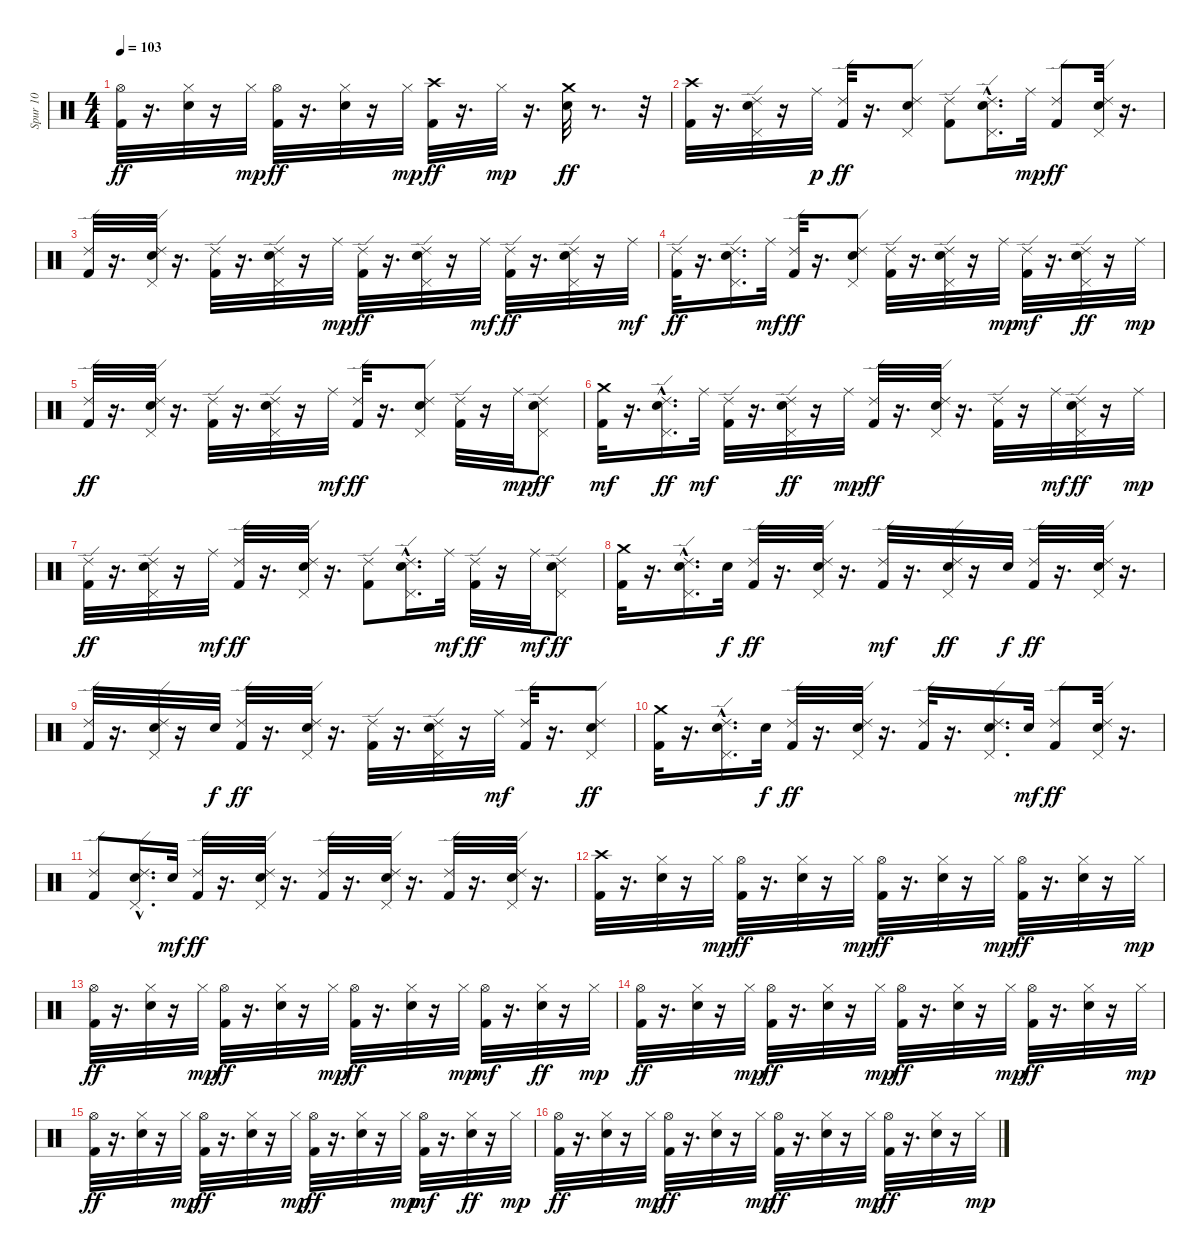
\track ("Spur 10" "Spur 10") {instrument percussion}
\staff {score}
\articulation defaults
\ts (4 4)
\tempo 103
\clef neutral
\ks c
("Kick (hit) 2" "Hi-Hat (open)").32{dy ff} r.16{d} ("Hi-Hat (closed)" "Electric Snare (hit)").32 r.16 "Hi-Hat (closed)".32{dy mp} ("Kick (hit) 2" "Hi-Hat (open)").32{dy ff} r.16{d} ("Hi-Hat (closed)" "Electric Snare (hit)").32 r.16 "Hi-Hat (closed)".32{dy mp} ("Kick (hit) 2" "Crash high (hit)").32{dy ff} r.16{d} "Hi-Hat (closed)".32{dy mp} r.16{d} ("Crash medium (hit)" "Electric Snare (hit)").32{dy ff} r.8{d} r.32 |
("Kick (hit) 2" "Crash high (hit)").32 r.16{d} ("Pedal Hi-Hat (hit)" "Ride (edge) 2" "Electric Snare (hit)").32 r.16 "Ride (middle)".32{dy p} ("Kick (hit) 2" "Ride (edge) 2").32{dy ff} r.16{d} ("Pedal Hi-Hat (hit)" "Ride (edge) 2" "Electric Snare (hit)").8 ("Kick (hit) 2" "Ride (edge) 2").8 ("Pedal Hi-Hat (hit)"{hac} "Ride (edge) 2" "Electric Snare (hit)").16{d} "Ride (middle)".32{dy mp} ("Kick (hit) 2" "Ride (edge) 2").8{dy ff} ("Pedal Hi-Hat (hit)" "Ride (edge) 2" "Electric Snare (hit)").32 r.16{d} |
("Kick (hit) 2" "Ride (edge) 2").32 r.16{d} ("Pedal Hi-Hat (hit)" "Ride (edge) 2" "Electric Snare (hit)").32 r.16{d} ("Kick (hit) 2" "Ride (edge) 2").32 r.16{d} ("Pedal Hi-Hat (hit)" "Ride (edge) 2" "Electric Snare (hit)").32 r.16 "Ride (middle)".32{dy mp} ("Kick (hit) 2" "Ride (edge) 2").32{dy ff} r.16{d} ("Pedal Hi-Hat (hit)" "Ride (edge) 2" "Electric Snare (hit)").32 r.16 "Ride (middle)".32{dy mf} ("Kick (hit) 2" "Ride (edge) 2").32{dy ff} r.16{d} ("Pedal Hi-Hat (hit)" "Ride (edge) 2" "Electric Snare (hit)").32 r.16 "Ride (middle)".32{dy mf} |
("Kick (hit) 2" "Ride (edge) 2").32{dy ff} r.16{d} ("Pedal Hi-Hat (hit)" "Ride (edge) 2" "Electric Snare (hit)").16{d} "Ride (middle)".32{dy mf} ("Kick (hit) 2" "Ride (edge) 2").32{dy ff} r.16{d} ("Pedal Hi-Hat (hit)" "Ride (edge) 2" "Electric Snare (hit)").8 ("Kick (hit) 2" "Ride (edge) 2").32 r.16{d} ("Pedal Hi-Hat (hit)" "Ride (edge) 2" "Electric Snare (hit)").32 r.16 "Ride (middle)".32{dy mp} ("Kick (hit) 2" "Ride (edge) 2").32{dy mf} r.16{d} ("Pedal Hi-Hat (hit)" "Ride (edge) 2" "Electric Snare (hit)").32{dy ff} r.16 "Ride (middle)".32{dy mp} |
("Kick (hit) 2" "Ride (edge) 2").32{dy ff} r.16{d} ("Pedal Hi-Hat (hit)" "Ride (edge) 2" "Electric Snare (hit)").32 r.16{d} ("Kick (hit) 2" "Ride (edge) 2").32 r.16{d} ("Pedal Hi-Hat (hit)" "Ride (edge) 2" "Electric Snare (hit)").32 r.16 "Ride (middle)".32{dy mf} ("Kick (hit) 2" "Ride (edge) 2").32{dy ff} r.16{d} ("Pedal Hi-Hat (hit)" "Ride (edge) 2" "Electric Snare (hit)").8 ("Kick (hit) 2" "Ride (edge) 2").32 r.16 "Ride (middle)".32{dy mp} ("Pedal Hi-Hat (hit)" "Ride (edge) 2" "Electric Snare (hit)").8{dy ff} |
("Kick (hit) 2" "Crash medium (hit)").32{dy mf} r.16{d} ("Pedal Hi-Hat (hit)"{hac} "Ride (edge) 2" "Electric Snare (hit)").16{d dy ff} "Ride (middle)".32{dy mf} ("Kick (hit) 2" "Ride (edge) 2").32 r.16{d} ("Pedal Hi-Hat (hit)" "Ride (edge) 2" "Electric Snare (hit)").32{dy ff} r.16 "Ride (middle)".32{dy mp} ("Kick (hit) 2" "Ride (edge) 2").32{dy ff} r.16{d} ("Pedal Hi-Hat (hit)" "Ride (edge) 2" "Electric Snare (hit)").32 r.16{d} ("Kick (hit) 2" "Ride (edge) 2").32 r.16 "Ride (middle)".32{dy mf} ("Pedal Hi-Hat (hit)" "Ride (edge) 2" "Electric Snare (hit)").32{dy ff} r.16 "Ride (middle)".32{dy mp} |
("Kick (hit) 2" "Ride (edge) 2").32{dy ff} r.16{d} ("Pedal Hi-Hat (hit)" "Ride (edge) 2" "Electric Snare (hit)").32 r.16 "Ride (middle)".32{dy mf} ("Kick (hit) 2" "Ride (edge) 2").32{dy ff} r.16{d} ("Pedal Hi-Hat (hit)" "Ride (edge) 2" "Electric Snare (hit)").32 r.16{d} ("Kick (hit) 2" "Ride (edge) 2").8 ("Pedal Hi-Hat (hit)" "Ride (edge) 2"{hac} "Electric Snare (hit)").16{d} "Ride (middle)".32{dy mf} ("Kick (hit) 2" "Ride (edge) 2").32{dy ff} r.16 "Ride (middle)".32{dy mf} ("Pedal Hi-Hat (hit)" "Ride (edge) 2" "Electric Snare (hit)").8{dy ff} |
("Kick (hit) 2" "Crash medium (hit)").32 r.16{d} ("Pedal Hi-Hat (hit)"{hac} "Ride (edge) 2" "Electric Snare (hit)").16{d} "Electric Snare (hit)".32{dy f} ("Kick (hit) 2" "Ride (edge) 2").32{dy ff} r.16{d} ("Pedal Hi-Hat (hit)" "Ride (edge) 2" "Electric Snare (hit)").32 r.16{d} ("Kick (hit) 2" "Ride (edge) 2").32{dy mf} r.16{d} ("Pedal Hi-Hat (hit)" "Ride (edge) 2" "Electric Snare (hit)").32{dy ff} r.16 "Electric Snare (hit)".32{dy f} ("Kick (hit) 2" "Ride (edge) 2").32{dy ff} r.16{d} ("Pedal Hi-Hat (hit)" "Ride (edge) 2" "Electric Snare (hit)").32 r.16{d} |
("Kick (hit) 2" "Ride (edge) 2").32 r.16{d} ("Pedal Hi-Hat (hit)" "Ride (edge) 2" "Electric Snare (hit)").32 r.16 "Electric Snare (hit)".32{dy f} ("Kick (hit) 2" "Ride (edge) 2").32{dy ff} r.16{d} ("Pedal Hi-Hat (hit)" "Ride (edge) 2" "Electric Snare (hit)").32 r.16{d} ("Kick (hit) 2" "Ride (edge) 2").32 r.16{d} ("Pedal Hi-Hat (hit)" "Ride (edge) 2" "Electric Snare (hit)").32 r.16 "Ride (middle)".32{dy mf} ("Kick (hit) 2" "Ride (edge) 2").32 r.16{d} ("Pedal Hi-Hat (hit)" "Ride (edge) 2" "Electric Snare (hit)").8{dy ff} |
("Kick (hit) 2" "Crash medium (hit)").32 r.16{d} ("Pedal Hi-Hat (hit)"{hac} "Ride (edge) 2" "Electric Snare (hit)").16{d} "Electric Snare (hit)".32{dy f} ("Kick (hit) 2" "Ride (edge) 2").32{dy ff} r.16{d} ("Pedal Hi-Hat (hit)" "Ride (edge) 2" "Electric Snare (hit)").32 r.16{d} ("Kick (hit) 2" "Ride (edge) 2").32 r.16{d} ("Pedal Hi-Hat (hit)" "Ride (edge) 2" "Electric Snare (hit)").16{d} "Electric Snare (hit)".32{dy mf} ("Kick (hit) 2" "Ride (edge) 2").8{dy ff} ("Pedal Hi-Hat (hit)" "Ride (edge) 2" "Electric Snare (hit)").32 r.16{d} |
("Kick (hit) 2" "Ride (edge) 2").8 ("Pedal Hi-Hat (hit)" "Ride (edge) 2"{hac} "Electric Snare (hit)").16{d} "Electric Snare (hit)".32{dy mf} ("Kick (hit) 2" "Ride (edge) 2").32{dy ff} r.16{d} ("Pedal Hi-Hat (hit)" "Ride (edge) 2" "Electric Snare (hit)").32 r.16{d} ("Kick (hit) 2" "Ride (edge) 2").32 r.16{d} ("Pedal Hi-Hat (hit)" "Ride (edge) 2" "Electric Snare (hit)").32 r.16{d} ("Kick (hit) 2" "Ride (edge) 2").32 r.16{d} ("Pedal Hi-Hat (hit)" "Ride (edge) 2" "Electric Snare (hit)").32 r.16{d} |
("Kick (hit) 2" "Crash high (hit)").32 r.16{d} ("Hi-Hat (closed)" "Electric Snare (hit)").32 r.16 "Hi-Hat (closed)".32{dy mp} ("Kick (hit) 2" "Hi-Hat (open)").32{dy ff} r.16{d} ("Hi-Hat (closed)" "Electric Snare (hit)").32 r.16 "Hi-Hat (closed)".32{dy mp} ("Kick (hit) 2" "Hi-Hat (open)").32{dy ff} r.16{d} ("Hi-Hat (closed)" "Electric Snare (hit)").32 r.16 "Hi-Hat (closed)".32{dy mp} ("Kick (hit) 2" "Hi-Hat (open)").32{dy ff} r.16{d} ("Hi-Hat (closed)" "Electric Snare (hit)").32 r.16 "Hi-Hat (closed)".32{dy mp} |
("Kick (hit) 2" "Hi-Hat (open)").32{dy ff} r.16{d} ("Hi-Hat (closed)" "Electric Snare (hit)").32 r.16 "Hi-Hat (closed)".32{dy mp} ("Kick (hit) 2" "Hi-Hat (open)").32{dy ff} r.16{d} ("Hi-Hat (closed)" "Electric Snare (hit)").32 r.16 "Hi-Hat (closed)".32{dy mp} ("Kick (hit) 2" "Hi-Hat (open)").32{dy ff} r.16{d} ("Hi-Hat (closed)" "Electric Snare (hit)").32 r.16 "Hi-Hat (closed)".32{dy mp} ("Kick (hit) 2" "Hi-Hat (open)").32{dy mf} r.16{d} ("Hi-Hat (closed)" "Electric Snare (hit)").32{dy ff} r.16 "Hi-Hat (closed)".32{dy mp} |
("Kick (hit) 2" "Hi-Hat (open)").32{dy ff} r.16{d} ("Hi-Hat (closed)" "Electric Snare (hit)").32 r.16 "Hi-Hat (closed)".32{dy mp} ("Kick (hit) 2" "Hi-Hat (open)").32{dy ff} r.16{d} ("Hi-Hat (closed)" "Electric Snare (hit)").32 r.16 "Hi-Hat (closed)".32{dy mp} ("Kick (hit) 2" "Hi-Hat (open)").32{dy ff} r.16{d} ("Hi-Hat (closed)" "Electric Snare (hit)").32 r.16 "Hi-Hat (closed)".32{dy mp} ("Kick (hit) 2" "Hi-Hat (open)").32{dy ff} r.16{d} ("Hi-Hat (closed)" "Electric Snare (hit)").32 r.16 "Hi-Hat (closed)".32{dy mp} |
("Kick (hit) 2" "Hi-Hat (open)").32{dy ff} r.16{d} ("Hi-Hat (closed)" "Electric Snare (hit)").32 r.16 "Hi-Hat (closed)".32{dy mp} ("Kick (hit) 2" "Hi-Hat (open)").32{dy ff} r.16{d} ("Hi-Hat (closed)" "Electric Snare (hit)").32 r.16 "Hi-Hat (closed)".32{dy mp} ("Kick (hit) 2" "Hi-Hat (open)").32{dy ff} r.16{d} ("Hi-Hat (closed)" "Electric Snare (hit)").32 r.16 "Hi-Hat (closed)".32{dy mp} ("Kick (hit) 2" "Hi-Hat (open)").32{dy mf} r.16{d} ("Hi-Hat (closed)" "Electric Snare (hit)").32{dy ff} r.16 "Hi-Hat (closed)".32{dy mp} |
("Kick (hit) 2" "Hi-Hat (open)").32{dy ff} r.16{d} ("Hi-Hat (closed)" "Electric Snare (hit)").32 r.16 "Hi-Hat (closed)".32{dy mp} ("Kick (hit) 2" "Hi-Hat (open)").32{dy ff} r.16{d} ("Hi-Hat (closed)" "Electric Snare (hit)").32 r.16 "Hi-Hat (closed)".32{dy mp} ("Kick (hit) 2" "Hi-Hat (open)").32{dy ff} r.16{d} ("Hi-Hat (closed)" "Electric Snare (hit)").32 r.16 "Hi-Hat (closed)".32{dy mp} ("Kick (hit) 2" "Hi-Hat (open)").32{dy ff} r.16{d} ("Hi-Hat (closed)" "Electric Snare (hit)").32 r.16 "Hi-Hat (closed)".32{dy mp}
